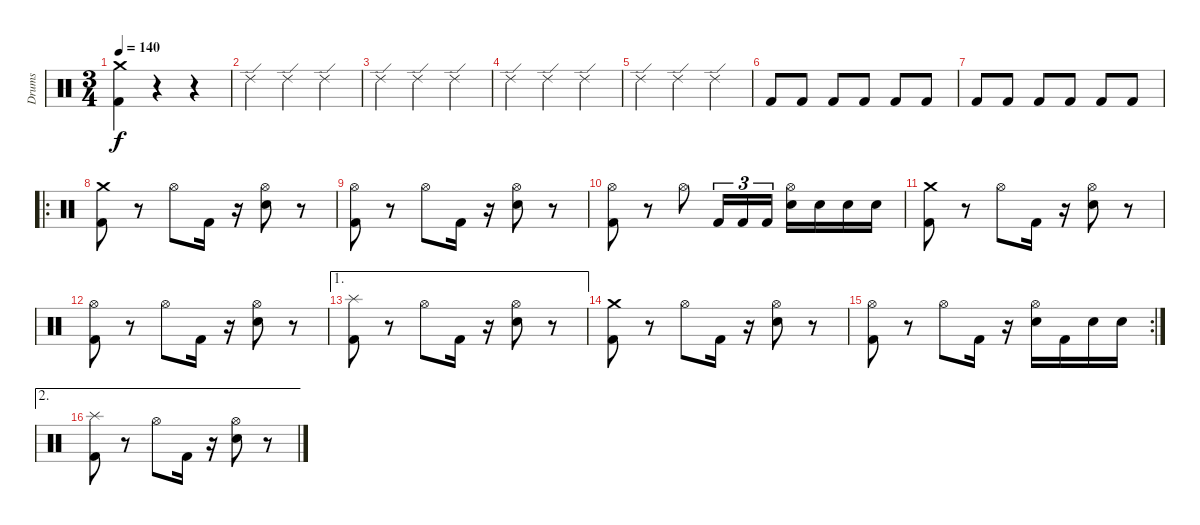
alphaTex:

\track ("Drums" "Drums") {instrument percussion}
\staff {score}
\articulation defaults
\ts (3 4)
\tempo 140
\clef neutral
\ks c
("Kick (hit) 2" "Crash medium (hit)").4{dy f} r.4 r.4 |
"Ride (edge) 2".4 "Ride (edge) 2".4 "Ride (edge) 2".4 |
"Ride (edge) 2".4 "Ride (edge) 2".4 "Ride (edge) 2".4 |
"Ride (edge) 2".4 "Ride (edge) 2".4 "Ride (edge) 2".4 |
"Ride (edge) 2".4 "Ride (edge) 2".4 "Ride (edge) 2".4 |
"Kick (hit) 2".8 "Kick (hit) 2".8 "Kick (hit) 2".8 "Kick (hit) 2".8 "Kick (hit) 2".8 "Kick (hit) 2".8 |
"Kick (hit) 2".8 "Kick (hit) 2".8 "Kick (hit) 2".8 "Kick (hit) 2".8 "Kick (hit) 2".8 "Kick (hit) 2".8 |
\ro
("Kick (hit) 2" "Crash medium (hit)").8 r.8 "Hi-Hat (open)".8 "Kick (hit) 2".16 r.16 ("Electric Snare (hit)" "Hi-Hat (open)").8 r.8 |
("Kick (hit) 2" "Hi-Hat (open)").8 r.8 "Hi-Hat (open)".8 "Kick (hit) 2".16 r.16 ("Electric Snare (hit)" "Hi-Hat (open)").8 r.8 |
("Kick (hit) 2" "Hi-Hat (open)").8 r.8 "Hi-Hat (open)".8 "Kick (hit) 2".16{tu (3 2)} "Kick (hit) 2".16{tu (3 2)} "Kick (hit) 2".16{tu (3 2)} ("Electric Snare (hit)" "Hi-Hat (open)").16 "Electric Snare (hit)".16 "Electric Snare (hit)".16 "Electric Snare (hit)".16 |
("Kick (hit) 2" "Crash medium (hit)").8 r.8 "Hi-Hat (open)".8 "Kick (hit) 2".16 r.16 ("Electric Snare (hit)" "Hi-Hat (open)").8 r.8 |
("Kick (hit) 2" "Hi-Hat (open)").8 r.8 "Hi-Hat (open)".8 "Kick (hit) 2".16 r.16 ("Electric Snare (hit)" "Hi-Hat (open)").8 r.8 |
\ae 1
("Kick (hit) 2" "Splash (hit)").8 r.8 "Hi-Hat (open)".8 "Kick (hit) 2".16 r.16 ("Electric Snare (hit)" "Hi-Hat (open)").8 r.8 |
("Kick (hit) 2" "Crash medium (hit)").8 r.8 "Hi-Hat (open)".8 "Kick (hit) 2".16 r.16 ("Electric Snare (hit)" "Hi-Hat (open)").8 r.8 |
\rc 2
("Kick (hit) 2" "Hi-Hat (open)").8 r.8 "Hi-Hat (open)".8 "Kick (hit) 2".16 r.16 ("Electric Snare (hit)" "Hi-Hat (open)").16 "Kick (hit) 2".16 "Electric Snare (hit)".16 "Electric Snare (hit)".16 |
\ae 2
("Kick (hit) 2" "Splash (hit)").8 r.8 "Hi-Hat (open)".8 "Kick (hit) 2".16 r.16 ("Electric Snare (hit)" "Hi-Hat (open)").8 r.8
